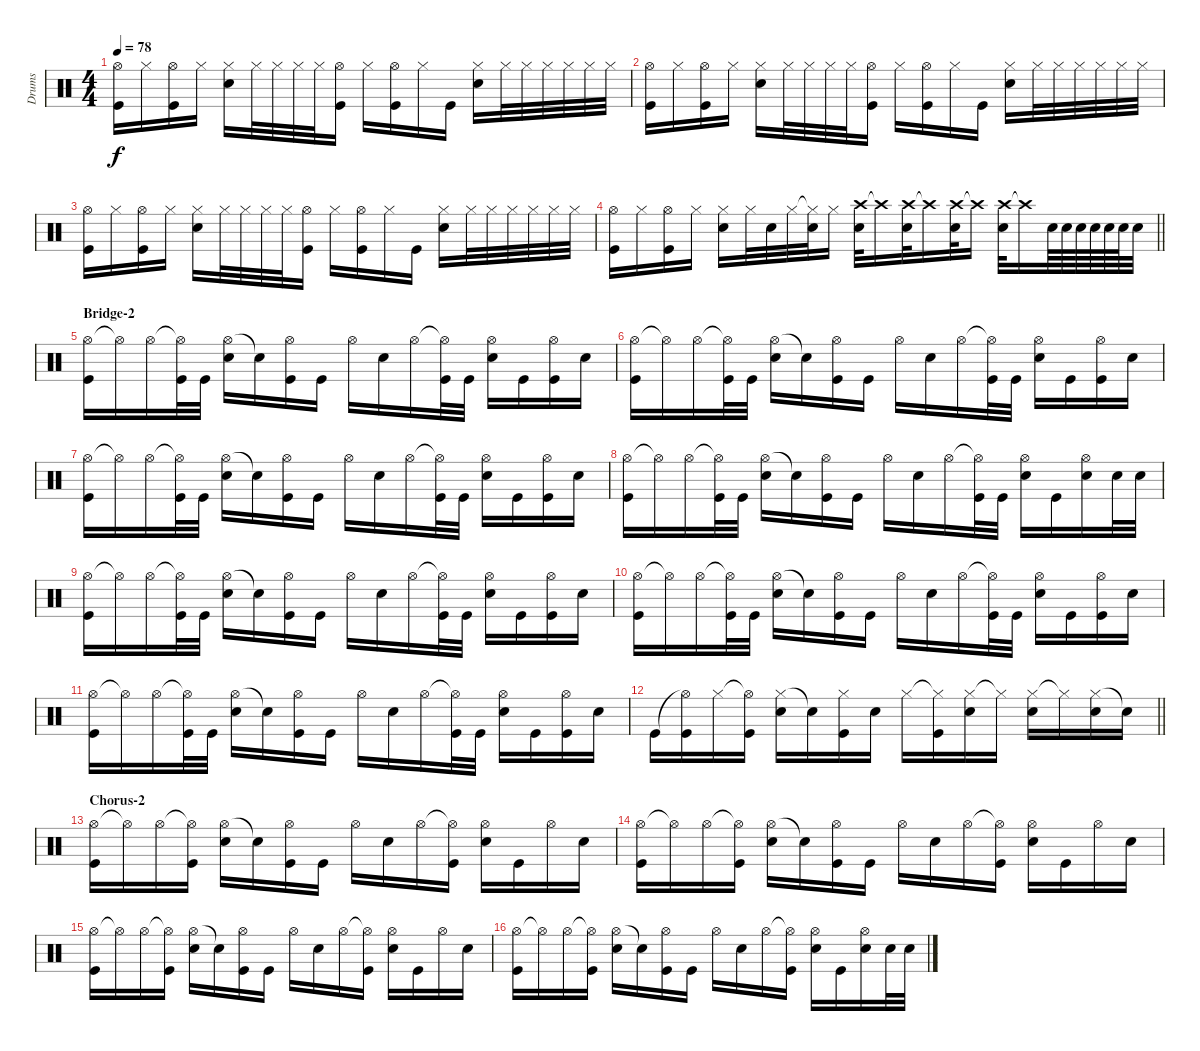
\track ("Drums" "Drums") {instrument percussion}
\staff {score}
\articulation defaults
\ts (4 4)
\tempo 78
\clef neutral
\ks c
("Hi-Hat (open)" "Kick (hit)").16{dy f} "Hi-Hat (closed)".16 ("Hi-Hat (open)" "Kick (hit)").16 "Hi-Hat (closed)".16 ("Hi-Hat (closed)" "Electric Snare (hit)").16 "Hi-Hat (closed)".32 "Hi-Hat (closed)".32 "Hi-Hat (closed)".32 "Hi-Hat (closed)".32 ("Hi-Hat (open)" "Kick (hit)").16 "Hi-Hat (closed)".16 ("Hi-Hat (open)" "Kick (hit)").16 "Hi-Hat (closed)".16 "Kick (hit)".16 ("Hi-Hat (closed)" "Electric Snare (hit)").16 "Hi-Hat (closed)".32 "Hi-Hat (closed)".32 "Hi-Hat (closed)".32 "Hi-Hat (closed)".32 "Hi-Hat (closed)".32 "Hi-Hat (closed)".32 |
("Hi-Hat (open)" "Kick (hit)").16 "Hi-Hat (closed)".16 ("Hi-Hat (open)" "Kick (hit)").16 "Hi-Hat (closed)".16 ("Hi-Hat (closed)" "Electric Snare (hit)").16 "Hi-Hat (closed)".32 "Hi-Hat (closed)".32 "Hi-Hat (closed)".32 "Hi-Hat (closed)".32 ("Hi-Hat (open)" "Kick (hit)").16 "Hi-Hat (closed)".16 ("Hi-Hat (open)" "Kick (hit)").16 "Hi-Hat (closed)".16 "Kick (hit)".16 ("Hi-Hat (closed)" "Electric Snare (hit)").16 "Hi-Hat (closed)".32 "Hi-Hat (closed)".32 "Hi-Hat (closed)".32 "Hi-Hat (closed)".32 "Hi-Hat (closed)".32 "Hi-Hat (closed)".32 |
("Hi-Hat (open)" "Kick (hit)").16 "Hi-Hat (closed)".16 ("Hi-Hat (open)" "Kick (hit)").16 "Hi-Hat (closed)".16 ("Hi-Hat (closed)" "Electric Snare (hit)").16 "Hi-Hat (closed)".32 "Hi-Hat (closed)".32 "Hi-Hat (closed)".32 "Hi-Hat (closed)".32 ("Hi-Hat (open)" "Kick (hit)").16 "Hi-Hat (closed)".16 ("Hi-Hat (open)" "Kick (hit)").16 "Hi-Hat (closed)".16 "Kick (hit)".16 ("Hi-Hat (closed)" "Electric Snare (hit)").16 "Hi-Hat (closed)".32 "Hi-Hat (closed)".32 "Hi-Hat (closed)".32 "Hi-Hat (closed)".32 "Hi-Hat (closed)".32 "Hi-Hat (closed)".32 |
\barLineRight lightlight
("Hi-Hat (open)" "Kick (hit)").16 "Hi-Hat (closed)".16 ("Hi-Hat (open)" "Kick (hit)").16 "Hi-Hat (closed)".16 ("Hi-Hat (closed)" "Electric Snare (hit)").16 "Hi-Hat (closed)".32 "Electric Snare (hit)".32 "Hi-Hat (closed)".32 ("Hi-Hat (closed)"{t} "Electric Snare (hit)").32 "Hi-Hat (closed)".16 ("Crash high (hit)" "Electric Snare (hit)").32 "Crash high (hit)"{t}.16 ("Crash high (hit)" "Electric Snare (hit)").32 "Crash high (hit)"{t}.16 ("Crash high (hit)" "Electric Snare (hit)").32 "Crash high (hit)"{t}.16 ("Crash high (hit)" "Electric Snare (hit)").32 "Crash high (hit)"{t}.16 "Electric Snare (hit)".64 "Electric Snare (hit)".64 "Electric Snare (hit)".64 "Electric Snare (hit)".64 "Electric Snare (hit)".64 "Electric Snare (hit)".64 "Electric Snare (hit)".32 |
\section ("" "Bridge-2")
("Hi-Hat (open)" "Kick (hit)").16 "Hi-Hat (open)"{t}.16 "Hi-Hat (open)".16 ("Hi-Hat (open)"{t} "Kick (hit)").32 "Kick (hit)".32 ("Hi-Hat (open)" "Electric Snare (hit)").16 "Snare (hit)"{t}.16 ("Hi-Hat (open)" "Kick (hit)").16 "Kick (hit)".16 "Hi-Hat (open)".16 "Electric Snare (hit)".16 "Hi-Hat (open)".16 ("Hi-Hat (open)"{t} "Kick (hit)").32 "Kick (hit)".32 ("Hi-Hat (open)" "Electric Snare (hit)").16 "Kick (hit)".16 ("Hi-Hat (open)" "Kick (hit)").16 "Electric Snare (hit)".16 |
("Hi-Hat (open)" "Kick (hit)").16 "Hi-Hat (open)"{t}.16 "Hi-Hat (open)".16 ("Hi-Hat (open)"{t} "Kick (hit)").32 "Kick (hit)".32 ("Hi-Hat (open)" "Electric Snare (hit)").16 "Snare (hit)"{t}.16 ("Hi-Hat (open)" "Kick (hit)").16 "Kick (hit)".16 "Hi-Hat (open)".16 "Electric Snare (hit)".16 "Hi-Hat (open)".16 ("Hi-Hat (open)"{t} "Kick (hit)").32 "Kick (hit)".32 ("Hi-Hat (open)" "Electric Snare (hit)").16 "Kick (hit)".16 ("Hi-Hat (open)" "Kick (hit)").16 "Electric Snare (hit)".16 |
("Hi-Hat (open)" "Kick (hit)").16 "Hi-Hat (open)"{t}.16 "Hi-Hat (open)".16 ("Hi-Hat (open)"{t} "Kick (hit)").32 "Kick (hit)".32 ("Hi-Hat (open)" "Electric Snare (hit)").16 "Snare (hit)"{t}.16 ("Hi-Hat (open)" "Kick (hit)").16 "Kick (hit)".16 "Hi-Hat (open)".16 "Electric Snare (hit)".16 "Hi-Hat (open)".16 ("Hi-Hat (open)"{t} "Kick (hit)").32 "Kick (hit)".32 ("Hi-Hat (open)" "Electric Snare (hit)").16 "Kick (hit)".16 ("Hi-Hat (open)" "Kick (hit)").16 "Electric Snare (hit)".16 |
("Hi-Hat (open)" "Kick (hit)").16 "Hi-Hat (open)"{t}.16 "Hi-Hat (open)".16 ("Hi-Hat (open)"{t} "Kick (hit)").32 "Kick (hit)".32 ("Hi-Hat (open)" "Electric Snare (hit)").16 "Snare (hit)"{t}.16 ("Hi-Hat (open)" "Kick (hit)").16 "Kick (hit)".16 "Hi-Hat (open)".16 "Electric Snare (hit)".16 "Hi-Hat (open)".16 ("Hi-Hat (open)"{t} "Kick (hit)").32 "Kick (hit)".32 ("Hi-Hat (open)" "Electric Snare (hit)").16 "Kick (hit)".16 ("Hi-Hat (open)" "Electric Snare (hit)").16 "Electric Snare (hit)".32 "Electric Snare (hit)".32 |
("Hi-Hat (open)" "Kick (hit)").16 "Hi-Hat (open)"{t}.16 "Hi-Hat (open)".16 ("Hi-Hat (open)"{t} "Kick (hit)").32 "Kick (hit)".32 ("Hi-Hat (open)" "Electric Snare (hit)").16 "Snare (hit)"{t}.16 ("Hi-Hat (open)" "Kick (hit)").16 "Kick (hit)".16 "Hi-Hat (open)".16 "Electric Snare (hit)".16 "Hi-Hat (open)".16 ("Hi-Hat (open)"{t} "Kick (hit)").32 "Kick (hit)".32 ("Hi-Hat (open)" "Electric Snare (hit)").16 "Kick (hit)".16 ("Hi-Hat (open)" "Kick (hit)").16 "Electric Snare (hit)".16 |
("Hi-Hat (open)" "Kick (hit)").16 "Hi-Hat (open)"{t}.16 "Hi-Hat (open)".16 ("Hi-Hat (open)"{t} "Kick (hit)").32 "Kick (hit)".32 ("Hi-Hat (open)" "Electric Snare (hit)").16 "Snare (hit)"{t}.16 ("Hi-Hat (open)" "Kick (hit)").16 "Kick (hit)".16 "Hi-Hat (open)".16 "Electric Snare (hit)".16 "Hi-Hat (open)".16 ("Hi-Hat (open)"{t} "Kick (hit)").32 "Kick (hit)".32 ("Hi-Hat (open)" "Electric Snare (hit)").16 "Kick (hit)".16 ("Hi-Hat (open)" "Kick (hit)").16 "Electric Snare (hit)".16 |
("Hi-Hat (open)" "Kick (hit)").16 "Hi-Hat (open)"{t}.16 "Hi-Hat (open)".16 ("Hi-Hat (open)"{t} "Kick (hit)").32 "Kick (hit)".32 ("Hi-Hat (open)" "Electric Snare (hit)").16 "Snare (hit)"{t}.16 ("Hi-Hat (open)" "Kick (hit)").16 "Kick (hit)".16 "Hi-Hat (open)".16 "Electric Snare (hit)".16 "Hi-Hat (open)".16 ("Hi-Hat (open)"{t} "Kick (hit)").32 "Kick (hit)".32 ("Hi-Hat (open)" "Electric Snare (hit)").16 "Kick (hit)".16 ("Hi-Hat (open)" "Kick (hit)").16 "Electric Snare (hit)".16 |
\barLineRight lightlight "Kick (hit)".16
("Hi-Hat (open)"{t} "Kick (hit)").16 "Hi-Hat (closed)".16 ("Hi-Hat (open)"{t} "Kick (hit)").16 ("Hi-Hat (closed)" "Electric Snare (hit)").16 "Snare (hit)"{t}.16 ("Hi-Hat (closed)" "Kick (hit)").16 "Electric Snare (hit)".16 "Hi-Hat (closed)".16 ("Hi-Hat (closed)"{t} "Kick (hit)").16 ("Hi-Hat (closed)" "Electric Snare (hit)").16 "Hi-Hat (closed)"{t}.16 ("Hi-Hat (closed)" "Electric Snare (hit)").16 "Hi-Hat (closed)"{t}.16 ("Hi-Hat (closed)" "Electric Snare (hit)").16 "Snare (hit)"{t}.16 |
\section ("" "Chorus-2")
("Hi-Hat (open)" "Kick (hit)").16 "Hi-Hat (open)"{t}.16 "Hi-Hat (open)".16 ("Hi-Hat (open)"{t} "Kick (hit)").16 ("Hi-Hat (open)" "Electric Snare (hit)").16 "Snare (hit)"{t}.16 ("Hi-Hat (open)" "Kick (hit)").16 "Kick (hit)".16 "Hi-Hat (open)".16 "Electric Snare (hit)".16 "Hi-Hat (open)".16 ("Hi-Hat (open)"{t} "Kick (hit)").16 ("Hi-Hat (open)" "Electric Snare (hit)").16 "Kick (hit)".16 "Hi-Hat (open)".16 "Electric Snare (hit)".16 |
("Hi-Hat (open)" "Kick (hit)").16 "Hi-Hat (open)"{t}.16 "Hi-Hat (open)".16 ("Hi-Hat (open)"{t} "Kick (hit)").16 ("Hi-Hat (open)" "Electric Snare (hit)").16 "Snare (hit)"{t}.16 ("Hi-Hat (open)" "Kick (hit)").16 "Kick (hit)".16 "Hi-Hat (open)".16 "Electric Snare (hit)".16 "Hi-Hat (open)".16 ("Hi-Hat (open)"{t} "Kick (hit)").16 ("Hi-Hat (open)" "Electric Snare (hit)").16 "Kick (hit)".16 "Hi-Hat (open)".16 "Electric Snare (hit)".16 |
("Hi-Hat (open)" "Kick (hit)").16 "Hi-Hat (open)"{t}.16 "Hi-Hat (open)".16 ("Hi-Hat (open)"{t} "Kick (hit)").16 ("Hi-Hat (open)" "Electric Snare (hit)").16 "Snare (hit)"{t}.16 ("Hi-Hat (open)" "Kick (hit)").16 "Kick (hit)".16 "Hi-Hat (open)".16 "Electric Snare (hit)".16 "Hi-Hat (open)".16 ("Hi-Hat (open)"{t} "Kick (hit)").16 ("Hi-Hat (open)" "Electric Snare (hit)").16 "Kick (hit)".16 "Hi-Hat (open)".16 "Electric Snare (hit)".16 |
("Hi-Hat (open)" "Kick (hit)").16 "Hi-Hat (open)"{t}.16 "Hi-Hat (open)".16 ("Hi-Hat (open)"{t} "Kick (hit)").16 ("Hi-Hat (open)" "Electric Snare (hit)").16 "Snare (hit)"{t}.16 ("Hi-Hat (open)" "Kick (hit)").16 "Kick (hit)".16 "Hi-Hat (open)".16 "Electric Snare (hit)".16 "Hi-Hat (open)".16 ("Hi-Hat (open)"{t} "Kick (hit)").16 ("Hi-Hat (open)" "Electric Snare (hit)").16 "Kick (hit)".16 ("Hi-Hat (open)" "Electric Snare (hit)").16 "Electric Snare (hit)".32 "Electric Snare (hit)".32
